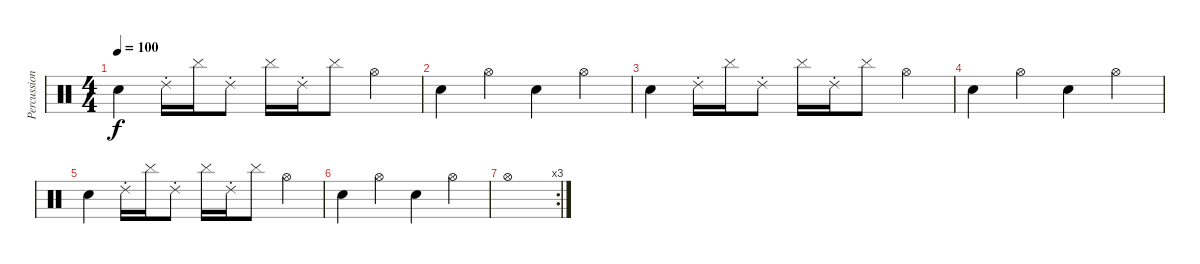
\track ("Percussions" "Percussion") {instrument percussion}
\staff {score}
\articulation defaults
\ts (4 4)
\tempo 100
\clef neutral
\ks c "Snare (hit) 2".4{dy f} "Ride (choke) 2".16 "Cymbal (hit)".16 "Ride (choke) 2".8 "Cymbal (hit)".16 "Ride (choke) 2".16 "Cymbal (hit)".8 "Hi-Hat (open)".4
|
"Snare (hit) 2".4 "Hi-Hat (open)".4 "Snare (hit) 2".4 "Hi-Hat (open)".4 |
"Snare (hit) 2".4 "Ride (choke) 2".16 "Cymbal (hit)".16 "Ride (choke) 2".8 "Cymbal (hit)".16 "Ride (choke) 2".16 "Cymbal (hit)".8 "Hi-Hat (open)".4 |
"Snare (hit) 2".4 "Hi-Hat (open)".4 "Snare (hit) 2".4 "Hi-Hat (open)".4 |
"Snare (hit) 2".4 "Ride (choke) 2".16 "Cymbal (hit)".16 "Ride (choke) 2".8 "Cymbal (hit)".16 "Ride (choke) 2".16 "Cymbal (hit)".8 "Hi-Hat (open)".4 |
"Snare (hit) 2".4 "Hi-Hat (open)".4 "Snare (hit) 2".4 "Hi-Hat (open)".4 |
\rc 3 "Hi-Hat (open)".1
